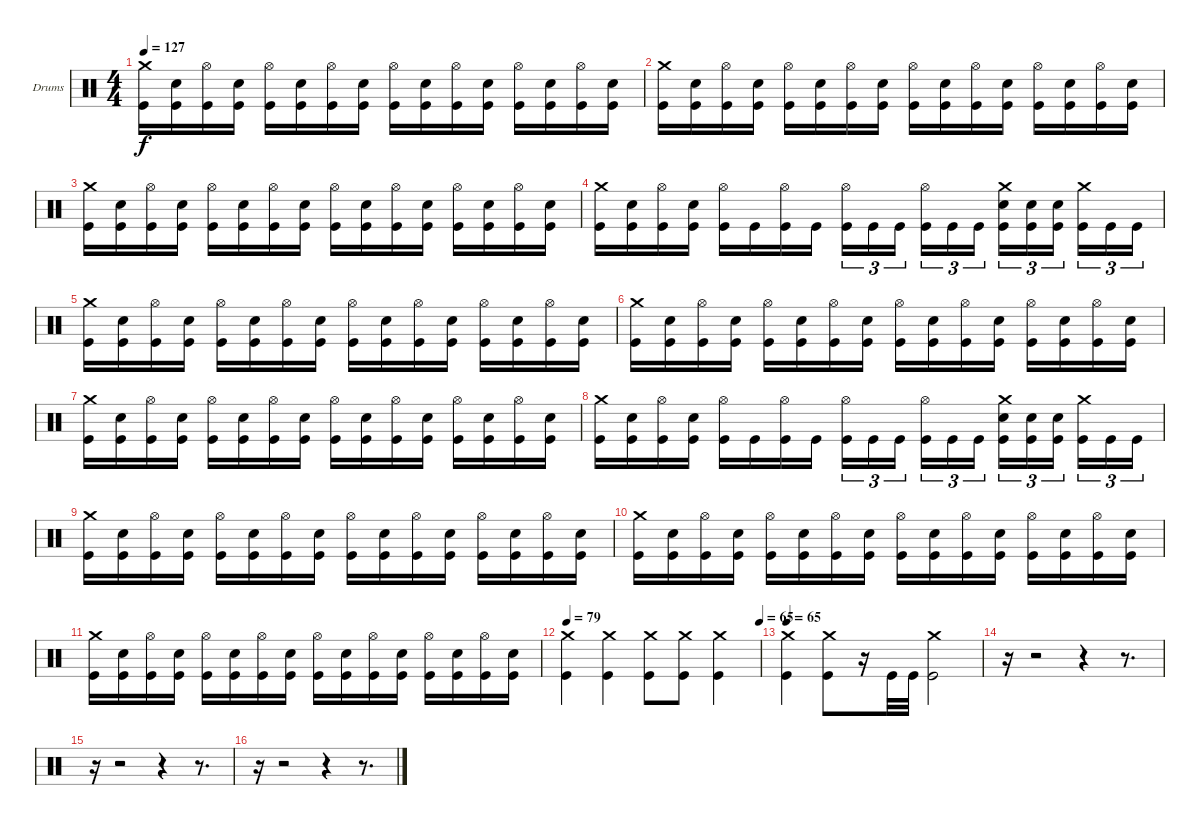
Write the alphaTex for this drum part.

\bracketExtendMode groupsimilarinstruments
\firstSystemTrackNameOrientation horizontal
\otherSystemsTrackNameOrientation horizontal
\track ("Drumkit" "Drums") {instrument percussion}
\staff {score}
\articulation defaults
\ts (4 4)
\tempo 127
\clef neutral
\ks c
("Crash medium (hit)" "Kick (hit)").16{dy f} ("Snare (hit) 2" "Kick (hit)").16 ("Hi-Hat (open)" "Kick (hit)").16 ("Snare (hit) 2" "Kick (hit)").16 ("Hi-Hat (open)" "Kick (hit)").16 ("Snare (hit) 2" "Kick (hit)").16 ("Hi-Hat (open)" "Kick (hit)").16 ("Snare (hit) 2" "Kick (hit)").16 ("Hi-Hat (open)" "Kick (hit)").16 ("Snare (hit) 2" "Kick (hit)").16 ("Hi-Hat (open)" "Kick (hit)").16 ("Snare (hit) 2" "Kick (hit)").16 ("Hi-Hat (open)" "Kick (hit)").16 ("Snare (hit) 2" "Kick (hit)").16 ("Hi-Hat (open)" "Kick (hit)").16 ("Snare (hit) 2" "Kick (hit)").16 |
("Crash medium (hit)" "Kick (hit)").16 ("Snare (hit) 2" "Kick (hit)").16 ("Hi-Hat (open)" "Kick (hit)").16 ("Snare (hit) 2" "Kick (hit)").16 ("Hi-Hat (open)" "Kick (hit)").16 ("Snare (hit) 2" "Kick (hit)").16 ("Hi-Hat (open)" "Kick (hit)").16 ("Snare (hit) 2" "Kick (hit)").16 ("Hi-Hat (open)" "Kick (hit)").16 ("Snare (hit) 2" "Kick (hit)").16 ("Hi-Hat (open)" "Kick (hit)").16 ("Snare (hit) 2" "Kick (hit)").16 ("Hi-Hat (open)" "Kick (hit)").16 ("Snare (hit) 2" "Kick (hit)").16 ("Hi-Hat (open)" "Kick (hit)").16 ("Snare (hit) 2" "Kick (hit)").16 |
("Crash medium (hit)" "Kick (hit)").16 ("Snare (hit) 2" "Kick (hit)").16 ("Hi-Hat (open)" "Kick (hit)").16 ("Snare (hit) 2" "Kick (hit)").16 ("Hi-Hat (open)" "Kick (hit)").16 ("Snare (hit) 2" "Kick (hit)").16 ("Hi-Hat (open)" "Kick (hit)").16 ("Snare (hit) 2" "Kick (hit)").16 ("Hi-Hat (open)" "Kick (hit)").16 ("Snare (hit) 2" "Kick (hit)").16 ("Hi-Hat (open)" "Kick (hit)").16 ("Snare (hit) 2" "Kick (hit)").16 ("Hi-Hat (open)" "Kick (hit)").16 ("Snare (hit) 2" "Kick (hit)").16 ("Hi-Hat (open)" "Kick (hit)").16 ("Snare (hit) 2" "Kick (hit)").16 |
("Crash medium (hit)" "Kick (hit)").16 ("Snare (hit) 2" "Kick (hit)").16 ("Hi-Hat (open)" "Kick (hit)").16 ("Snare (hit) 2" "Kick (hit)").16 ("Hi-Hat (open)" "Kick (hit)").16 "Kick (hit)".16 ("Hi-Hat (open)" "Kick (hit)").16 "Kick (hit)".16 ("Hi-Hat (open)" "Kick (hit)").16{tu (3 2)} "Kick (hit)".16{tu (3 2)} "Kick (hit)".16{tu (3 2)} ("Hi-Hat (open)" "Kick (hit)").16{tu (3 2)} "Kick (hit)".16{tu (3 2)} "Kick (hit)".16{tu (3 2)} ("Crash medium (hit)" "Snare (hit) 2" "Kick (hit)").16{tu (3 2)} ("Snare (hit) 2" "Kick (hit)").16{tu (3 2)} ("Snare (hit) 2" "Kick (hit)").16{tu (3 2)} ("Crash medium (hit)" "Kick (hit)").16{tu (3 2)} "Kick (hit)".16{tu (3 2)} "Kick (hit)".16{tu (3 2)} |
("Crash medium (hit)" "Kick (hit)").16 ("Snare (hit) 2" "Kick (hit)").16 ("Hi-Hat (open)" "Kick (hit)").16 ("Snare (hit) 2" "Kick (hit)").16 ("Hi-Hat (open)" "Kick (hit)").16 ("Snare (hit) 2" "Kick (hit)").16 ("Hi-Hat (open)" "Kick (hit)").16 ("Snare (hit) 2" "Kick (hit)").16 ("Hi-Hat (open)" "Kick (hit)").16 ("Snare (hit) 2" "Kick (hit)").16 ("Hi-Hat (open)" "Kick (hit)").16 ("Snare (hit) 2" "Kick (hit)").16 ("Hi-Hat (open)" "Kick (hit)").16 ("Snare (hit) 2" "Kick (hit)").16 ("Hi-Hat (open)" "Kick (hit)").16 ("Snare (hit) 2" "Kick (hit)").16 |
("Crash medium (hit)" "Kick (hit)").16 ("Snare (hit) 2" "Kick (hit)").16 ("Hi-Hat (open)" "Kick (hit)").16 ("Snare (hit) 2" "Kick (hit)").16 ("Hi-Hat (open)" "Kick (hit)").16 ("Snare (hit) 2" "Kick (hit)").16 ("Hi-Hat (open)" "Kick (hit)").16 ("Snare (hit) 2" "Kick (hit)").16 ("Hi-Hat (open)" "Kick (hit)").16 ("Snare (hit) 2" "Kick (hit)").16 ("Hi-Hat (open)" "Kick (hit)").16 ("Snare (hit) 2" "Kick (hit)").16 ("Hi-Hat (open)" "Kick (hit)").16 ("Snare (hit) 2" "Kick (hit)").16 ("Hi-Hat (open)" "Kick (hit)").16 ("Snare (hit) 2" "Kick (hit)").16 |
("Crash medium (hit)" "Kick (hit)").16 ("Snare (hit) 2" "Kick (hit)").16 ("Hi-Hat (open)" "Kick (hit)").16 ("Snare (hit) 2" "Kick (hit)").16 ("Hi-Hat (open)" "Kick (hit)").16 ("Snare (hit) 2" "Kick (hit)").16 ("Hi-Hat (open)" "Kick (hit)").16 ("Snare (hit) 2" "Kick (hit)").16 ("Hi-Hat (open)" "Kick (hit)").16 ("Snare (hit) 2" "Kick (hit)").16 ("Hi-Hat (open)" "Kick (hit)").16 ("Snare (hit) 2" "Kick (hit)").16 ("Hi-Hat (open)" "Kick (hit)").16 ("Snare (hit) 2" "Kick (hit)").16 ("Hi-Hat (open)" "Kick (hit)").16 ("Snare (hit) 2" "Kick (hit)").16 |
("Crash medium (hit)" "Kick (hit)").16 ("Snare (hit) 2" "Kick (hit)").16 ("Hi-Hat (open)" "Kick (hit)").16 ("Snare (hit) 2" "Kick (hit)").16 ("Hi-Hat (open)" "Kick (hit)").16 "Kick (hit)".16 ("Hi-Hat (open)" "Kick (hit)").16 "Kick (hit)".16 ("Hi-Hat (open)" "Kick (hit)").16{tu (3 2)} "Kick (hit)".16{tu (3 2)} "Kick (hit)".16{tu (3 2)} ("Hi-Hat (open)" "Kick (hit)").16{tu (3 2)} "Kick (hit)".16{tu (3 2)} "Kick (hit)".16{tu (3 2)} ("Crash medium (hit)" "Snare (hit) 2" "Kick (hit)").16{tu (3 2)} ("Snare (hit) 2" "Kick (hit)").16{tu (3 2)} ("Snare (hit) 2" "Kick (hit)").16{tu (3 2)} ("Crash medium (hit)" "Kick (hit)").16{tu (3 2)} "Kick (hit)".16{tu (3 2)} "Kick (hit)".16{tu (3 2)} |
("Crash medium (hit)" "Kick (hit)").16 ("Snare (hit) 2" "Kick (hit)").16 ("Hi-Hat (open)" "Kick (hit)").16 ("Snare (hit) 2" "Kick (hit)").16 ("Hi-Hat (open)" "Kick (hit)").16 ("Snare (hit) 2" "Kick (hit)").16 ("Hi-Hat (open)" "Kick (hit)").16 ("Snare (hit) 2" "Kick (hit)").16 ("Hi-Hat (open)" "Kick (hit)").16 ("Snare (hit) 2" "Kick (hit)").16 ("Hi-Hat (open)" "Kick (hit)").16 ("Snare (hit) 2" "Kick (hit)").16 ("Hi-Hat (open)" "Kick (hit)").16 ("Snare (hit) 2" "Kick (hit)").16 ("Hi-Hat (open)" "Kick (hit)").16 ("Snare (hit) 2" "Kick (hit)").16 |
("Crash medium (hit)" "Kick (hit)").16 ("Snare (hit) 2" "Kick (hit)").16 ("Hi-Hat (open)" "Kick (hit)").16 ("Snare (hit) 2" "Kick (hit)").16 ("Hi-Hat (open)" "Kick (hit)").16 ("Snare (hit) 2" "Kick (hit)").16 ("Hi-Hat (open)" "Kick (hit)").16 ("Snare (hit) 2" "Kick (hit)").16 ("Hi-Hat (open)" "Kick (hit)").16 ("Snare (hit) 2" "Kick (hit)").16 ("Hi-Hat (open)" "Kick (hit)").16 ("Snare (hit) 2" "Kick (hit)").16 ("Hi-Hat (open)" "Kick (hit)").16 ("Snare (hit) 2" "Kick (hit)").16 ("Hi-Hat (open)" "Kick (hit)").16 ("Snare (hit) 2" "Kick (hit)").16 |
("Crash medium (hit)" "Kick (hit)").16 ("Snare (hit) 2" "Kick (hit)").16 ("Hi-Hat (open)" "Kick (hit)").16 ("Snare (hit) 2" "Kick (hit)").16 ("Hi-Hat (open)" "Kick (hit)").16 ("Snare (hit) 2" "Kick (hit)").16 ("Hi-Hat (open)" "Kick (hit)").16 ("Snare (hit) 2" "Kick (hit)").16 ("Hi-Hat (open)" "Kick (hit)").16 ("Snare (hit) 2" "Kick (hit)").16 ("Hi-Hat (open)" "Kick (hit)").16 ("Snare (hit) 2" "Kick (hit)").16 ("Hi-Hat (open)" "Kick (hit)").16 ("Snare (hit) 2" "Kick (hit)").16 ("Hi-Hat (open)" "Kick (hit)").16 ("Snare (hit) 2" "Kick (hit)").16 |
\tempo 79
\tempo (65 1)
("Crash medium (hit)" "Kick (hit)").4 ("Crash medium (hit)" "Kick (hit)").4 ("Crash medium (hit)" "Kick (hit)").8 ("Crash medium (hit)" "Kick (hit)").8 ("Crash medium (hit)" "Kick (hit)").4 |
\tempo 65
("Crash medium (hit)" "Kick (hit)").4 ("Crash medium (hit)" "Kick (hit)").8 r.16 "Kick (hit)".32 "Kick (hit)".32 ("Crash medium (hit)" "Kick (hit)").2 |
r.16 r.2 r.4 r.8{d} |
r.16 r.2 r.4 r.8{d} |
r.16 r.2 r.4 r.8{d}
